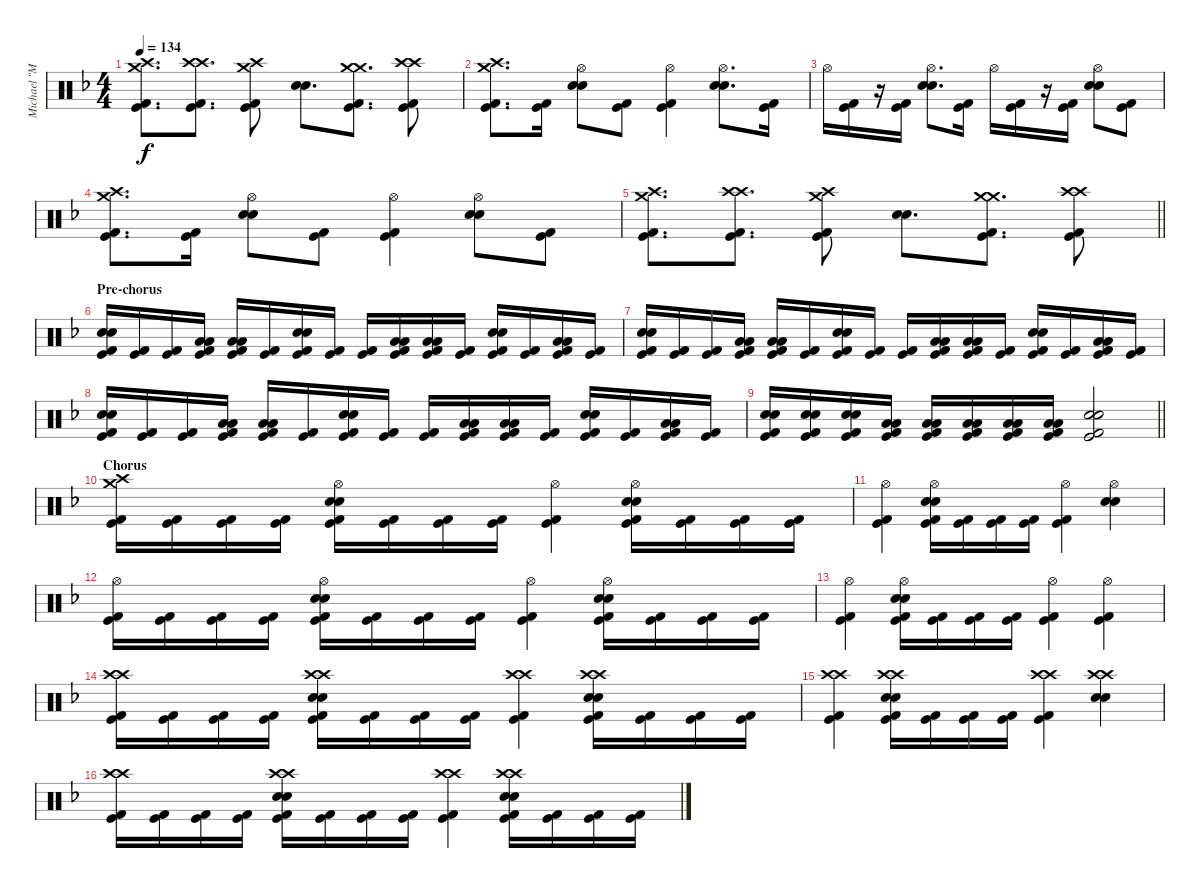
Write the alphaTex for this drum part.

\track ("Michael \"Moose\" Thomas" "Michael \"M") {instrument percussion}
\staff {score}
\articulation defaults
\ts (4 4)
\tempo 134
\clef neutral
\ks f
("Crash high (hit)" "Crash medium (hit)" "Kick (hit)" "Kick (hit) 2").8{d dy f} ("Crash high (hit)" "Crash high (hit)" "Kick (hit)" "Kick (hit) 2").8{d} ("Crash high (hit)" "Crash medium (hit)" "Kick (hit)" "Kick (hit) 2").8 ("Electric Snare (hit)" "Electric Snare (hit)").8{d} ("Crash medium (hit)" "Crash medium (hit)" "Kick (hit)" "Kick (hit) 2").8{d} ("Crash high (hit)" "Crash high (hit)" "Kick (hit)" "Kick (hit) 2").8 |
("Crash high (hit)" "Crash medium (hit)" "Kick (hit)" "Kick (hit) 2").8{d} ("Kick (hit)" "Kick (hit) 2").16 ("Hi-Hat (open)" "Electric Snare (hit)" "Electric Snare (hit)").8 ("Kick (hit)" "Kick (hit) 2").8 ("Hi-Hat (open)" "Kick (hit)" "Kick (hit) 2").4 ("Hi-Hat (open)" "Electric Snare (hit)" "Electric Snare (hit)").8{d} ("Kick (hit)" "Kick (hit) 2").16 |
"Hi-Hat (open)".16 ("Kick (hit)" "Kick (hit) 2").16 r.16 ("Kick (hit)" "Kick (hit) 2").16 ("Hi-Hat (open)" "Electric Snare (hit)" "Electric Snare (hit)").8{d} ("Kick (hit)" "Kick (hit) 2").16 "Hi-Hat (open)".16 ("Kick (hit)" "Kick (hit) 2").16 r.16 ("Kick (hit)" "Kick (hit) 2").16 ("Hi-Hat (open)" "Electric Snare (hit)" "Electric Snare (hit)").8 ("Kick (hit)" "Kick (hit) 2").8 |
("Crash high (hit)" "Crash medium (hit)" "Kick (hit)" "Kick (hit) 2").8{d} ("Kick (hit)" "Kick (hit) 2").16 ("Hi-Hat (open)" "Electric Snare (hit)" "Electric Snare (hit)").8 ("Kick (hit)" "Kick (hit) 2").8 ("Hi-Hat (open)" "Kick (hit)" "Kick (hit) 2").4 ("Hi-Hat (open)" "Electric Snare (hit)" "Electric Snare (hit)").8 ("Kick (hit)" "Kick (hit) 2").8 |
\barLineRight lightlight
("Crash high (hit)" "Crash medium (hit)" "Kick (hit)" "Kick (hit) 2").8{d} ("Crash high (hit)" "Crash high (hit)" "Kick (hit)" "Kick (hit) 2").8{d} ("Crash high (hit)" "Crash medium (hit)" "Kick (hit)" "Kick (hit) 2").8 ("Electric Snare (hit)" "Electric Snare (hit)").8{d} ("Crash medium (hit)" "Crash medium (hit)" "Kick (hit)" "Kick (hit) 2").8{d} ("Crash high (hit)" "Crash high (hit)" "Kick (hit)" "Kick (hit) 2").8 |
\section ("" "Pre-chorus")
("Electric Snare (hit)" "Electric Snare (hit)" "Kick (hit)" "Kick (hit) 2").16 ("Kick (hit)" "Kick (hit) 2").16 ("Kick (hit)" "Kick (hit) 2").16 ("Low Tom (hit)" "Low Tom (hit)" "Kick (hit)" "Kick (hit) 2").16 ("Low Tom (hit)" "Low Floor Tom (hit)" "Kick (hit)" "Kick (hit) 2").16 ("Kick (hit)" "Kick (hit) 2").16 ("Electric Snare (hit)" "Electric Snare (hit)" "Kick (hit)" "Kick (hit) 2").16 ("Kick (hit)" "Kick (hit) 2").16 ("Kick (hit)" "Kick (hit) 2").16 ("Low Tom (hit)" "Low Floor Tom (hit)" "Kick (hit)" "Kick (hit) 2").16 ("Low Floor Tom (hit)" "Low Floor Tom (hit)" "Kick (hit)" "Kick (hit) 2").16 ("Kick (hit)" "Kick (hit) 2").16 ("Electric Snare (hit)" "Electric Snare (hit)" "Kick (hit)" "Kick (hit) 2").16 ("Kick (hit)" "Kick (hit) 2").16 ("Low Floor Tom (hit)" "Low Floor Tom (hit)" "Kick (hit)" "Kick (hit) 2").16 ("Kick (hit)" "Kick (hit) 2").16 |
("Electric Snare (hit)" "Electric Snare (hit)" "Kick (hit)" "Kick (hit) 2").16 ("Kick (hit)" "Kick (hit) 2").16 ("Kick (hit)" "Kick (hit) 2").16 ("Low Tom (hit)" "Low Tom (hit)" "Kick (hit)" "Kick (hit) 2").16 ("Low Tom (hit)" "Low Floor Tom (hit)" "Kick (hit)" "Kick (hit) 2").16 ("Kick (hit)" "Kick (hit) 2").16 ("Electric Snare (hit)" "Electric Snare (hit)" "Kick (hit)" "Kick (hit) 2").16 ("Kick (hit)" "Kick (hit) 2").16 ("Kick (hit)" "Kick (hit) 2").16 ("Low Tom (hit)" "Low Floor Tom (hit)" "Kick (hit)" "Kick (hit) 2").16 ("Low Floor Tom (hit)" "Low Floor Tom (hit)" "Kick (hit)" "Kick (hit) 2").16 ("Kick (hit)" "Kick (hit) 2").16 ("Electric Snare (hit)" "Electric Snare (hit)" "Kick (hit)" "Kick (hit) 2").16 ("Kick (hit)" "Kick (hit) 2").16 ("Low Floor Tom (hit)" "Low Floor Tom (hit)" "Kick (hit)" "Kick (hit) 2").16 ("Kick (hit)" "Kick (hit) 2").16 |
("Electric Snare (hit)" "Electric Snare (hit)" "Kick (hit)" "Kick (hit) 2").16 ("Kick (hit)" "Kick (hit) 2").16 ("Kick (hit)" "Kick (hit) 2").16 ("Low Tom (hit)" "Low Tom (hit)" "Kick (hit)" "Kick (hit) 2").16 ("Low Tom (hit)" "Low Floor Tom (hit)" "Kick (hit)" "Kick (hit) 2").16 ("Kick (hit)" "Kick (hit) 2").16 ("Electric Snare (hit)" "Electric Snare (hit)" "Kick (hit)" "Kick (hit) 2").16 ("Kick (hit)" "Kick (hit) 2").16 ("Kick (hit)" "Kick (hit) 2").16 ("Low Tom (hit)" "Low Floor Tom (hit)" "Kick (hit)" "Kick (hit) 2").16 ("Low Floor Tom (hit)" "Low Floor Tom (hit)" "Kick (hit)" "Kick (hit) 2").16 ("Kick (hit)" "Kick (hit) 2").16 ("Electric Snare (hit)" "Electric Snare (hit)" "Kick (hit)" "Kick (hit) 2").16 ("Kick (hit)" "Kick (hit) 2").16 ("Low Floor Tom (hit)" "Low Floor Tom (hit)" "Kick (hit)" "Kick (hit) 2").16 ("Kick (hit)" "Kick (hit) 2").16 |
\barLineRight lightlight
("Electric Snare (hit)" "Electric Snare (hit)" "Kick (hit)" "Kick (hit) 2").16 ("Electric Snare (hit)" "Electric Snare (hit)" "Kick (hit)" "Kick (hit) 2").16 ("Electric Snare (hit)" "Electric Snare (hit)" "Kick (hit)" "Kick (hit) 2").16 ("Low Tom (hit)" "Low Tom (hit)" "Kick (hit)" "Kick (hit) 2").16 ("Low Tom (hit)" "Low Floor Tom (hit)" "Kick (hit)" "Kick (hit) 2").16 ("Low Floor Tom (hit)" "Low Floor Tom (hit)" "Kick (hit)" "Kick (hit) 2").16 ("Low Tom (hit)" "Low Floor Tom (hit)" "Kick (hit)" "Kick (hit) 2").16 ("Low Floor Tom (hit)" "Low Floor Tom (hit)" "Kick (hit)" "Kick (hit) 2").16 ("Electric Snare (hit)" "Electric Snare (hit)" "Kick (hit)" "Kick (hit) 2").2 |
\section ("" "Chorus")
("Crash high (hit)" "Crash medium (hit)" "Kick (hit)" "Kick (hit) 2").16 ("Kick (hit)" "Kick (hit) 2").16 ("Kick (hit)" "Kick (hit) 2").16 ("Kick (hit)" "Kick (hit) 2").16 ("Hi-Hat (open)" "Electric Snare (hit)" "Electric Snare (hit)" "Kick (hit)" "Kick (hit) 2").16 ("Kick (hit)" "Kick (hit) 2").16 ("Kick (hit)" "Kick (hit) 2").16 ("Kick (hit)" "Kick (hit) 2").16 ("Hi-Hat (open)" "Kick (hit)" "Kick (hit) 2").4 ("Hi-Hat (open)" "Electric Snare (hit)" "Electric Snare (hit)" "Kick (hit)" "Kick (hit) 2").16 ("Kick (hit)" "Kick (hit) 2").16 ("Kick (hit)" "Kick (hit) 2").16 ("Kick (hit)" "Kick (hit) 2").16 |
("Hi-Hat (open)" "Kick (hit)" "Kick (hit) 2").4 ("Hi-Hat (open)" "Electric Snare (hit)" "Electric Snare (hit)" "Kick (hit)" "Kick (hit) 2").16 ("Kick (hit)" "Kick (hit) 2").16 ("Kick (hit)" "Kick (hit) 2").16 ("Kick (hit)" "Kick (hit) 2").16 ("Hi-Hat (open)" "Kick (hit)" "Kick (hit) 2").4 ("Hi-Hat (open)" "Electric Snare (hit)" "Electric Snare (hit)").4 |
("Hi-Hat (open)" "Kick (hit)" "Kick (hit) 2").16 ("Kick (hit)" "Kick (hit) 2").16 ("Kick (hit)" "Kick (hit) 2").16 ("Kick (hit)" "Kick (hit) 2").16 ("Hi-Hat (open)" "Electric Snare (hit)" "Electric Snare (hit)" "Kick (hit)" "Kick (hit) 2").16 ("Kick (hit)" "Kick (hit) 2").16 ("Kick (hit)" "Kick (hit) 2").16 ("Kick (hit)" "Kick (hit) 2").16 ("Hi-Hat (open)" "Kick (hit)" "Kick (hit) 2").4 ("Hi-Hat (open)" "Electric Snare (hit)" "Electric Snare (hit)" "Kick (hit)" "Kick (hit) 2").16 ("Kick (hit)" "Kick (hit) 2").16 ("Kick (hit)" "Kick (hit) 2").16 ("Kick (hit)" "Kick (hit) 2").16 |
("Hi-Hat (open)" "Kick (hit)" "Kick (hit) 2").4 ("Hi-Hat (open)" "Electric Snare (hit)" "Electric Snare (hit)" "Kick (hit)" "Kick (hit) 2").16 ("Kick (hit)" "Kick (hit) 2").16 ("Kick (hit)" "Kick (hit) 2").16 ("Kick (hit)" "Kick (hit) 2").16 ("Hi-Hat (open)" "Kick (hit)" "Kick (hit) 2").4 ("Hi-Hat (open)" "Kick (hit)" "Kick (hit) 2").4 |
("Crash high (hit)" "Crash high (hit)" "Kick (hit)" "Kick (hit) 2").16 ("Kick (hit)" "Kick (hit) 2").16 ("Kick (hit)" "Kick (hit) 2").16 ("Kick (hit)" "Kick (hit) 2").16 ("Crash high (hit)" "Crash high (hit)" "Electric Snare (hit)" "Electric Snare (hit)" "Kick (hit)" "Kick (hit) 2").16 ("Kick (hit)" "Kick (hit) 2").16 ("Kick (hit)" "Kick (hit) 2").16 ("Kick (hit)" "Kick (hit) 2").16 ("Crash high (hit)" "Crash high (hit)" "Kick (hit)" "Kick (hit) 2").4 ("Crash high (hit)" "Crash high (hit)" "Electric Snare (hit)" "Electric Snare (hit)" "Kick (hit)" "Kick (hit) 2").16 ("Kick (hit)" "Kick (hit) 2").16 ("Kick (hit)" "Kick (hit) 2").16 ("Kick (hit)" "Kick (hit) 2").16 |
("Crash high (hit)" "Crash high (hit)" "Kick (hit)" "Kick (hit) 2").4 ("Crash high (hit)" "Crash high (hit)" "Electric Snare (hit)" "Electric Snare (hit)" "Kick (hit)" "Kick (hit) 2").16 ("Kick (hit)" "Kick (hit) 2").16 ("Kick (hit)" "Kick (hit) 2").16 ("Kick (hit)" "Kick (hit) 2").16 ("Crash high (hit)" "Crash high (hit)" "Kick (hit)" "Kick (hit) 2").4 ("Crash high (hit)" "Crash high (hit)" "Electric Snare (hit)" "Electric Snare (hit)").4 |
("Crash high (hit)" "Crash high (hit)" "Kick (hit)" "Kick (hit) 2").16 ("Kick (hit)" "Kick (hit) 2").16 ("Kick (hit)" "Kick (hit) 2").16 ("Kick (hit)" "Kick (hit) 2").16 ("Crash high (hit)" "Crash high (hit)" "Electric Snare (hit)" "Electric Snare (hit)" "Kick (hit)" "Kick (hit) 2").16 ("Kick (hit)" "Kick (hit) 2").16 ("Kick (hit)" "Kick (hit) 2").16 ("Kick (hit)" "Kick (hit) 2").16 ("Crash high (hit)" "Crash high (hit)" "Kick (hit)" "Kick (hit) 2").4 ("Crash high (hit)" "Crash high (hit)" "Electric Snare (hit)" "Electric Snare (hit)" "Kick (hit)" "Kick (hit) 2").16 ("Kick (hit)" "Kick (hit) 2").16 ("Kick (hit)" "Kick (hit) 2").16 ("Kick (hit)" "Kick (hit) 2").16
